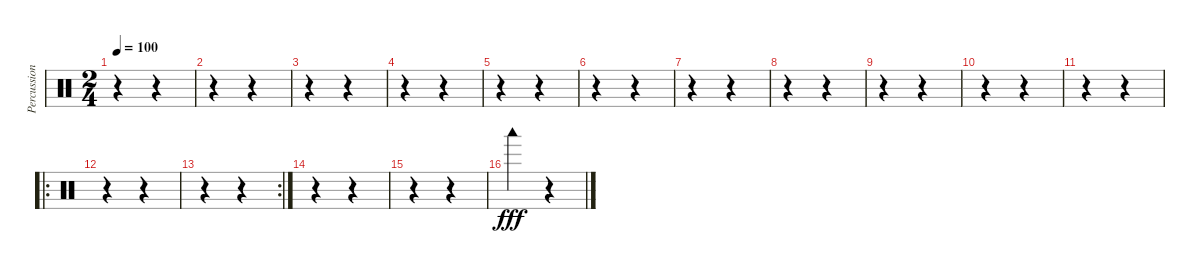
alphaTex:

\track ("Percussion" "Percussion") {instrument percussion}
\staff {score}
\articulation defaults
\ts (2 4)
\tempo 100
\clef neutral
\ks c
r.4{dy fff} r.4 |
r.4 r.4 |
r.4 r.4 |
r.4 r.4 |
r.4 r.4 |
r.4 r.4 |
r.4 r.4 |
r.4 r.4 |
r.4 r.4 |
r.4 r.4 |
r.4 r.4 |
\ro
r.4 r.4 |
\rc 2
r.4 r.4 |
r.4 r.4 |
r.4 r.4 |
"Woodblock low (hit)".4 r.4
